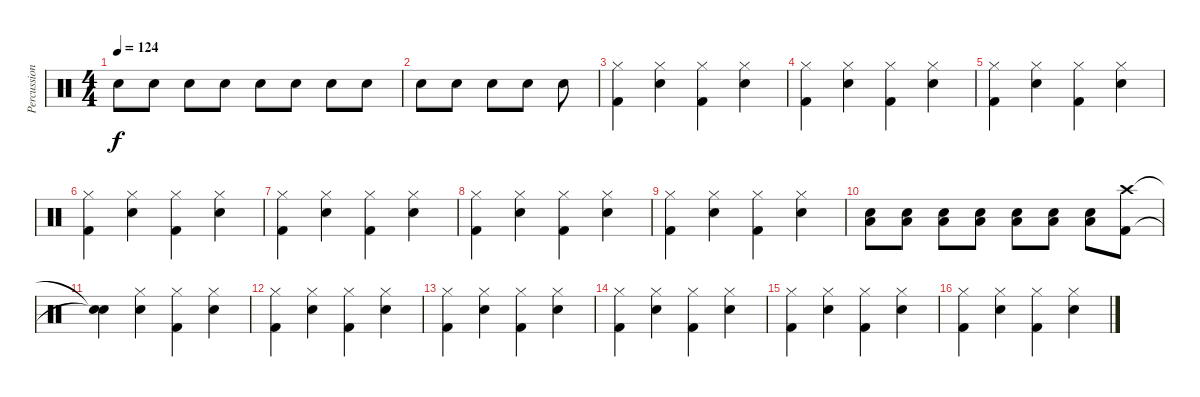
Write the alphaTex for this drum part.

\track ("Percussion" "Percussion") {instrument percussion}
\staff {score}
\articulation defaults
\ts (4 4)
\tempo 124
\clef neutral
\ks c "Snare (hit) 2".8{dy f} "Snare (hit) 2".8 "Snare (hit) 2".8 "Snare (hit) 2".8 "Snare (hit) 2".8 "Snare (hit) 2".8 "Snare (hit) 2".8 "Snare (hit) 2".8
|
"Snare (hit) 2".8 "Snare (hit) 2".8 "Snare (hit) 2".8 "Snare (hit) 2".8 "Snare (hit) 2".8 |
("Hi-Hat (closed)" "Kick (hit) 2").4 ("Hi-Hat (closed)" "Snare (hit) 2").4 ("Hi-Hat (closed)" "Kick (hit) 2").4 ("Hi-Hat (closed)" "Snare (hit) 2").4 |
("Hi-Hat (closed)" "Kick (hit) 2").4 ("Hi-Hat (closed)" "Snare (hit) 2").4 ("Hi-Hat (closed)" "Kick (hit) 2").4 ("Hi-Hat (closed)" "Snare (hit) 2").4 |
("Hi-Hat (closed)" "Kick (hit) 2").4 ("Hi-Hat (closed)" "Snare (hit) 2").4 ("Hi-Hat (closed)" "Kick (hit) 2").4 ("Hi-Hat (closed)" "Snare (hit) 2").4 |
("Hi-Hat (closed)" "Kick (hit) 2").4 ("Hi-Hat (closed)" "Snare (hit) 2").4 ("Hi-Hat (closed)" "Kick (hit) 2").4 ("Hi-Hat (closed)" "Snare (hit) 2").4 |
("Hi-Hat (closed)" "Kick (hit) 2").4 ("Hi-Hat (closed)" "Snare (hit) 2").4 ("Hi-Hat (closed)" "Kick (hit) 2").4 ("Hi-Hat (closed)" "Snare (hit) 2").4 |
("Hi-Hat (closed)" "Kick (hit) 2").4 ("Hi-Hat (closed)" "Snare (hit) 2").4 ("Hi-Hat (closed)" "Kick (hit) 2").4 ("Hi-Hat (closed)" "Snare (hit) 2").4 |
("Hi-Hat (closed)" "Kick (hit) 2").4 ("Hi-Hat (closed)" "Snare (hit) 2").4 ("Hi-Hat (closed)" "Kick (hit) 2").4 ("Hi-Hat (closed)" "Snare (hit) 2").4 |
("Low Tom (hit)" "Snare (hit) 2").8 ("Low Tom (hit)" "Snare (hit) 2").8 ("Low Tom (hit)" "Snare (hit) 2").8 ("Low Tom (hit)" "Snare (hit) 2").8 ("Low Tom (hit)" "Snare (hit) 2").8 ("Low Tom (hit)" "Snare (hit) 2").8 ("Low Tom (hit)" "Snare (hit) 2").8 ("Crash high (hit)" "Kick (hit) 2").8 |
("Snare (hit)"{t} "Snare (hit)"{t}).4 ("Hi-Hat (closed)" "Snare (hit) 2").4 ("Hi-Hat (closed)" "Kick (hit) 2").4 ("Hi-Hat (closed)" "Snare (hit) 2").4 |
("Hi-Hat (closed)" "Kick (hit) 2").4 ("Hi-Hat (closed)" "Snare (hit) 2").4 ("Hi-Hat (closed)" "Kick (hit) 2").4 ("Hi-Hat (closed)" "Snare (hit) 2").4 |
("Hi-Hat (closed)" "Kick (hit) 2").4 ("Hi-Hat (closed)" "Snare (hit) 2").4 ("Hi-Hat (closed)" "Kick (hit) 2").4 ("Hi-Hat (closed)" "Snare (hit) 2").4 |
("Hi-Hat (closed)" "Kick (hit) 2").4 ("Hi-Hat (closed)" "Snare (hit) 2").4 ("Hi-Hat (closed)" "Kick (hit) 2").4 ("Hi-Hat (closed)" "Snare (hit) 2").4 |
("Hi-Hat (closed)" "Kick (hit) 2").4 ("Hi-Hat (closed)" "Snare (hit) 2").4 ("Hi-Hat (closed)" "Kick (hit) 2").4 ("Hi-Hat (closed)" "Snare (hit) 2").4 |
("Hi-Hat (closed)" "Kick (hit) 2").4 ("Hi-Hat (closed)" "Snare (hit) 2").4 ("Hi-Hat (closed)" "Kick (hit) 2").4 ("Hi-Hat (closed)" "Snare (hit) 2").4
